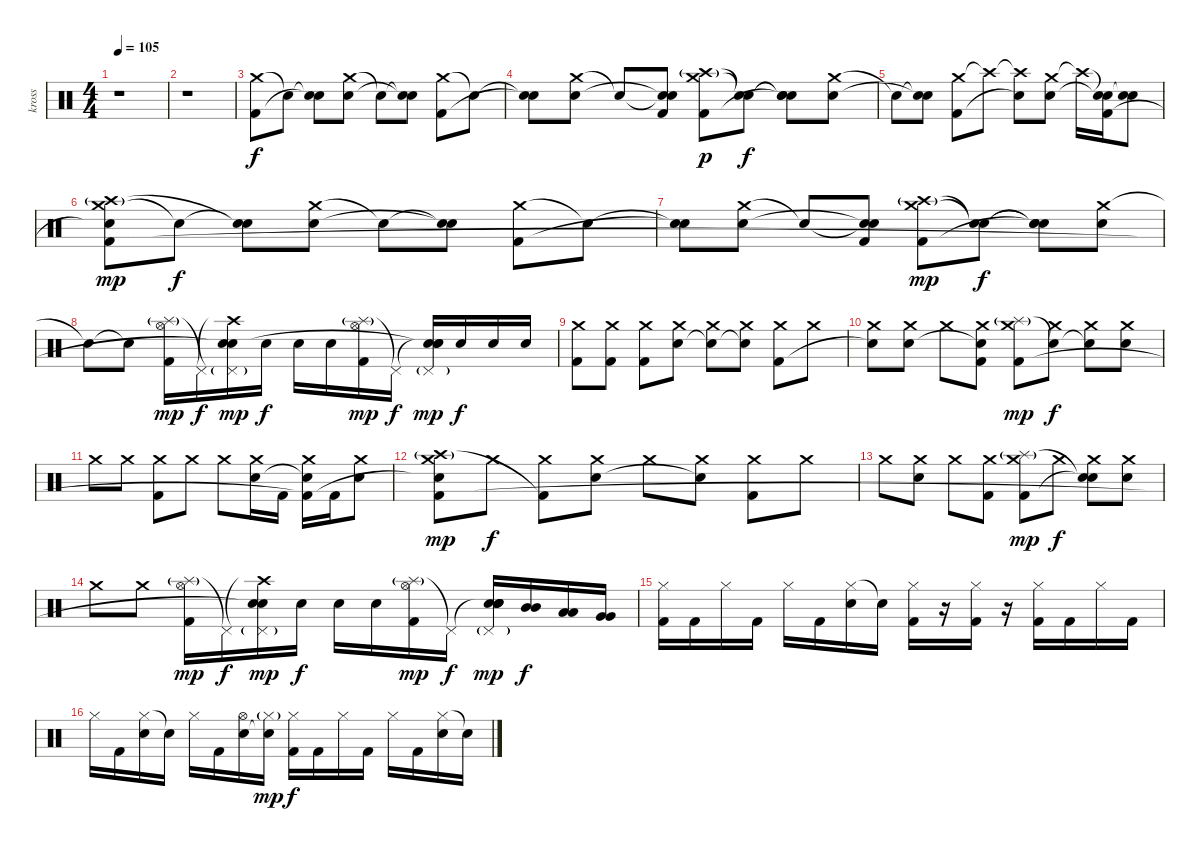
\track ("kross" "kross") {instrument percussion}
\staff {score}
\articulation defaults
\ts (4 4)
\tempo 105
\clef neutral
\ks c
r.1{dy f} |
r.1 |
("Crash medium (hit)" "Kick (hit) 2").8 "Snare (hit)"{t}.8 ("Snare (hit)"{t} "Snare (hit)"{t}).8 ("Crash medium (hit)" "Electric Snare (hit)").8 "Snare (hit)"{t}.8 ("Snare (hit)"{t} "Snare (hit)"{t}).8 ("Crash medium (hit)" "Kick (hit) 2").8 "Snare (hit)"{t}.8 |
("Snare (hit)"{t} "Snare (hit)"{t}).8 ("Crash medium (hit)" "Electric Snare (hit)").8 "Snare (hit)"{t}.8 ("Snare (hit)"{t} "Snare (hit)"{t} "Kick (hit) 2").8 ("Crash medium (hit)" "Crash high (hit)"{g} "Kick (hit) 2").8{dy p} ("Snare (hit)"{t} "Snare (hit)"{t}).8{dy f} ("Snare (hit)"{t} "Snare (hit)"{t} "Snare (hit)"{t}).8 ("Crash medium (hit)" "Electric Snare (hit)").8 |
"Snare (hit)"{t}.8 ("Snare (hit)"{t} "Snare (hit)"{t}).8 ("Crash medium (hit)" "Kick (hit) 2").8 "Crash high (hit)"{t}.8 ("Crash high (hit)"{t} "Snare (hit)"{t}).8 ("Crash medium (hit)" "Electric Snare (hit)").8 "Crash high (hit)"{t}.16 ("Snare (hit)"{t} "Electric Snare (hit)"{t} "Kick (hit) 2").16 ("Electric Snare (hit)" "Snare (hit)"{t}).8 |
("Crash medium (hit)" "Crash high (hit)"{g} "Snare (hit)"{t} "Kick (hit) 2").8{dy mp} "Snare (hit)"{t}.8{dy f} ("Snare (hit)"{t} "Snare (hit)"{t}).8 ("Crash medium (hit)" "Electric Snare (hit)").8 "Snare (hit)"{t}.8 ("Snare (hit)"{t} "Snare (hit)"{t}).8 ("Crash medium (hit)" "Kick (hit) 2").8 "Snare (hit)"{t}.8 |
("Snare (hit)"{t} "Snare (hit)"{t}).8 ("Crash medium (hit)" "Electric Snare (hit)").8 "Snare (hit)"{t}.8 ("Snare (hit)"{t} "Snare (hit)"{t} "Kick (hit) 2").8 ("Crash medium (hit)" "Crash high (hit)"{g} "Kick (hit) 2").8{dy mp} ("Snare (hit)"{t} "Snare (hit)"{t}).8{dy f} ("Snare (hit)"{t} "Snare (hit)"{t} "Snare (hit)"{t}).8 ("Crash medium (hit)" "Electric Snare (hit)").8 |
"Snare (hit)"{t}.8 "Snare (hit)"{t}.8 ("Splash (hit)"{g} "Hi-Hat (open)" "Kick (hit) 2").16{dy mp} "Pedal Hi-Hat (hit)"{t}.16{dy f} ("Crash high (hit)"{t} "Pedal Hi-Hat (hit)"{g} "Electric Snare (hit)" "Snare (hit)"{t}).16{dy mp} "Electric Snare (hit)".16{dy f} "Electric Snare (hit)".16 "Electric Snare (hit)".16 ("Splash (hit)"{g} "Hi-Hat (open)" "Kick (hit) 2").16{dy mp} "Pedal Hi-Hat (hit)"{t}.16{dy f} ("Snare (hit)"{t} "Pedal Hi-Hat (hit)"{g} "Electric Snare (hit)" "Snare (hit)"{t}).16{dy mp} "Electric Snare (hit)".16{dy f} "Electric Snare (hit)".16 "Electric Snare (hit)".16 |
("Crash medium (hit)" "Kick (hit) 2").8 ("Crash medium (hit)" "Kick (hit) 2").8 ("Crash medium (hit)" "Kick (hit) 2").8 ("Crash medium (hit)" "Electric Snare (hit)").8 ("Crash medium (hit)" "Snare (hit)"{t}).8 ("Crash medium (hit)" "Snare (hit)"{t}).8 ("Crash medium (hit)" "Kick (hit) 2").8 "Crash medium (hit)".8 |
("Crash medium (hit)" "Snare (hit)"{t}).8 ("Crash medium (hit)" "Electric Snare (hit)").8 "Crash medium (hit)".8 ("Crash medium (hit)" "Snare (hit)"{t} "Kick (hit) 2").8 ("Crash medium (hit)" "Splash (hit)"{g} "Kick (hit) 2").8{dy mp} ("Crash medium (hit)" "Snare (hit)"{t}).8{dy f} ("Crash medium (hit)" "Snare (hit)"{t}).8 ("Crash medium (hit)" "Electric Snare (hit)").8 |
"Crash medium (hit)".8 "Crash medium (hit)".8 ("Crash medium (hit)" "Kick (hit) 2").8 "Crash medium (hit)".8 "Crash medium (hit)".8 ("Crash medium (hit)" "Electric Snare (hit)").16 "Kick (hit) 2".16 ("Crash medium (hit)" "Snare (hit)"{t} "Kick (hit) 2"{t}).16 "Kick (hit) 2".16 ("Crash medium (hit)" "Electric Snare (hit)").8 |
("Crash medium (hit)" "Crash high (hit)"{g} "Snare (hit)"{t} "Kick (hit) 2").8{dy mp} "Crash medium (hit)".8{dy f} ("Crash medium (hit)" "Kick (hit) 2"{t}).8 ("Crash medium (hit)" "Electric Snare (hit)").8 "Crash medium (hit)".8 ("Crash medium (hit)" "Snare (hit)"{t}).8 ("Crash medium (hit)" "Kick (hit) 2").8 "Crash medium (hit)".8 |
"Crash medium (hit)".8 ("Crash medium (hit)" "Electric Snare (hit)").8 "Crash medium (hit)".8 ("Crash medium (hit)" "Kick (hit) 2").8 ("Crash medium (hit)" "Splash (hit)"{g} "Kick (hit) 2").8{dy mp} "Crash medium (hit)".8{dy f} ("Crash medium (hit)" "Snare (hit)"{t} "Snare (hit)"{t}).8 ("Crash medium (hit)" "Electric Snare (hit)").8 |
"Crash medium (hit)".8 "Crash medium (hit)".8 ("Splash (hit)"{g} "Hi-Hat (open)" "Kick (hit) 2").16{dy mp} "Pedal Hi-Hat (hit)"{t}.16{dy f} ("Crash high (hit)"{t} "Pedal Hi-Hat (hit)"{g} "Electric Snare (hit)" "Snare (hit)"{t}).16{dy mp} "Electric Snare (hit)".16{dy f} "Electric Snare (hit)".16 "Electric Snare (hit)".16 ("Splash (hit)"{g} "Hi-Hat (open)" "Kick (hit) 2").16{dy mp} "Pedal Hi-Hat (hit)"{t}.16{dy f} ("Snare (hit)"{t} "Pedal Hi-Hat (hit)"{g} "Electric Snare (hit)" "Electric Snare (hit)" "Snare (hit)").16{dy mp} ("Mid Tom (hit)" "Mid Tom (hit)").16{dy f} ("Low Tom (hit)" "Low Tom (hit)").16 ("Very Low Tom (hit)" "Very Low Tom (hit)").16 |
("Hi-Hat (closed)" "Kick (hit) 2").16 "Kick (hit) 2".16 "Hi-Hat (closed)".16 "Kick (hit) 2".16 "Hi-Hat (closed)".16 "Kick (hit) 2".16 ("Hi-Hat (closed)" "Electric Snare (hit)").16 "Snare (hit)"{t}.16 ("Hi-Hat (closed)" "Kick (hit) 2").16 r.16 ("Hi-Hat (closed)" "Kick (hit) 2").16 r.16 ("Hi-Hat (closed)" "Kick (hit) 2").16 "Kick (hit) 2".16 "Hi-Hat (closed)".16 "Kick (hit) 2".16 |
"Hi-Hat (closed)".16 "Kick (hit) 2".16 ("Hi-Hat (closed)" "Electric Snare (hit)").16 "Snare (hit)"{t}.16 "Hi-Hat (closed)".16 "Kick (hit) 2".16 ("Hi-Hat (open)" "Electric Snare (hit)").16 ("Hi-Hat (closed)"{g} "Snare (hit)"{t}).16{dy mp} ("Hi-Hat (closed)" "Kick (hit) 2").16{dy f} "Kick (hit) 2".16 "Hi-Hat (closed)".16 "Kick (hit) 2".16 "Hi-Hat (closed)".16 "Kick (hit) 2".16 ("Hi-Hat (closed)" "Electric Snare (hit)").16 "Snare (hit)"{t}.16
